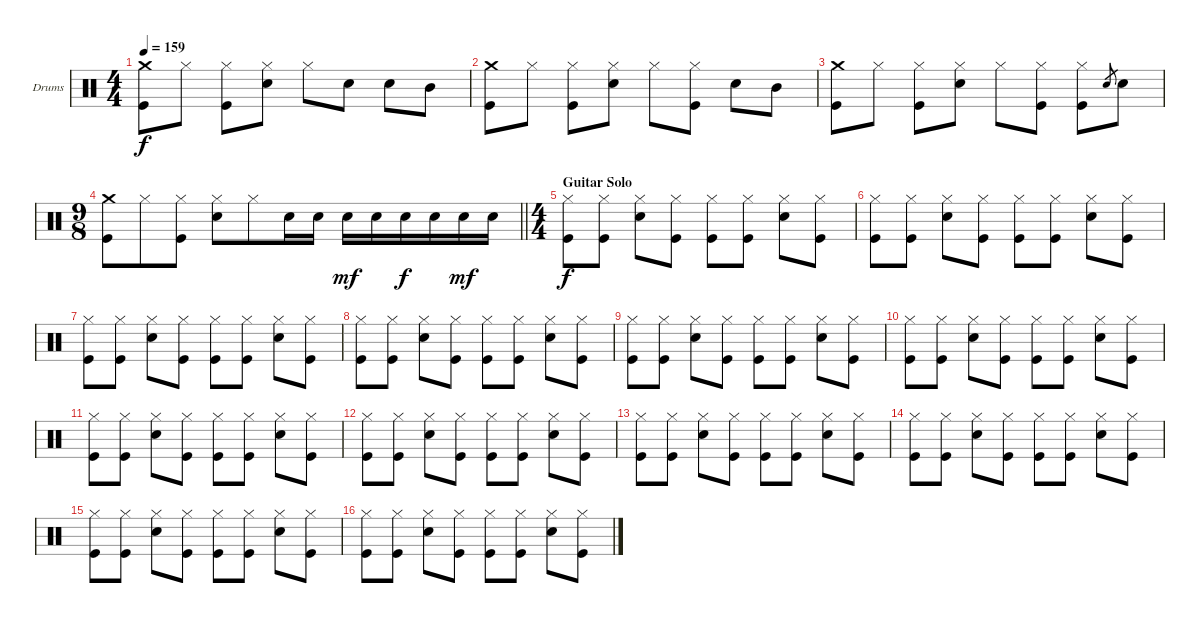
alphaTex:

\bracketExtendMode groupsimilarinstruments
\firstSystemTrackNameOrientation horizontal
\otherSystemsTrackNameOrientation horizontal
\track ("Fabrizio" "Drums") {instrument percussion}
\staff {score}
\articulation defaults
\ts (4 4)
\tempo 159
\clef neutral
\ks c
("Crash medium (hit)" "Kick (hit)").8{dy f} "Hi-Hat (closed)".8 ("Kick (hit)" "Hi-Hat (closed)").8 ("Snare (hit) 2" "Hi-Hat (closed)").8 "Hi-Hat (closed)".8 "Snare (hit) 2".8 "Snare (hit) 2".8 "Mid Tom (hit)".8 |
("Crash medium (hit)" "Kick (hit)").8 "Hi-Hat (closed)".8 ("Kick (hit)" "Hi-Hat (closed)").8 ("Snare (hit) 2" "Hi-Hat (closed)").8 "Hi-Hat (closed)".8 ("Hi-Hat (closed)" "Kick (hit)").8 "Snare (hit) 2".8 "Mid Tom (hit)".8 |
("Crash medium (hit)" "Kick (hit)").8 "Hi-Hat (closed)".8 ("Kick (hit)" "Hi-Hat (closed)").8 ("Snare (hit) 2" "Hi-Hat (closed)").8 "Hi-Hat (closed)".8 ("Hi-Hat (closed)" "Kick (hit)").8 ("Hi-Hat (closed)" "Kick (hit)").8 "Snare (hit) 2".8{gr} "Snare (hit) 2".8 |
\ts (9 8)
\barLineRight lightlight
("Crash medium (hit)" "Kick (hit)").8 "Hi-Hat (closed)".8 ("Kick (hit)" "Hi-Hat (closed)").8 ("Snare (hit) 2" "Hi-Hat (closed)").8 "Hi-Hat (closed)".8 "Snare (hit) 2".16 "Snare (hit) 2".16 "Snare (hit) 2".16{dy mf} "Snare (hit) 2".16 "Snare (hit) 2".16{dy f} "Snare (hit) 2".16 "Snare (hit) 2".16{dy mf} "Snare (hit) 2".16 |
\ts (4 4)
\section ("" "Guitar Solo")
("Kick (hit)" "Hi-Hat (closed)").8{dy f} ("Hi-Hat (closed)" "Kick (hit)").8 ("Snare (hit) 2" "Hi-Hat (closed)").8 ("Hi-Hat (closed)" "Kick (hit)").8 ("Kick (hit)" "Hi-Hat (closed)").8 ("Hi-Hat (closed)" "Kick (hit)").8 ("Snare (hit) 2" "Hi-Hat (closed)").8 ("Hi-Hat (closed)" "Kick (hit)").8 |
("Kick (hit)" "Hi-Hat (closed)").8 ("Hi-Hat (closed)" "Kick (hit)").8 ("Snare (hit) 2" "Hi-Hat (closed)").8 ("Hi-Hat (closed)" "Kick (hit)").8 ("Kick (hit)" "Hi-Hat (closed)").8 ("Hi-Hat (closed)" "Kick (hit)").8 ("Snare (hit) 2" "Hi-Hat (closed)").8 ("Hi-Hat (closed)" "Kick (hit)").8 |
("Kick (hit)" "Hi-Hat (closed)").8 ("Hi-Hat (closed)" "Kick (hit)").8 ("Snare (hit) 2" "Hi-Hat (closed)").8 ("Hi-Hat (closed)" "Kick (hit)").8 ("Kick (hit)" "Hi-Hat (closed)").8 ("Hi-Hat (closed)" "Kick (hit)").8 ("Snare (hit) 2" "Hi-Hat (closed)").8 ("Hi-Hat (closed)" "Kick (hit)").8 |
("Kick (hit)" "Hi-Hat (closed)").8 ("Hi-Hat (closed)" "Kick (hit)").8 ("Snare (hit) 2" "Hi-Hat (closed)").8 ("Hi-Hat (closed)" "Kick (hit)").8 ("Kick (hit)" "Hi-Hat (closed)").8 ("Hi-Hat (closed)" "Kick (hit)").8 ("Snare (hit) 2" "Hi-Hat (closed)").8 ("Hi-Hat (closed)" "Kick (hit)").8 |
("Kick (hit)" "Hi-Hat (closed)").8 ("Hi-Hat (closed)" "Kick (hit)").8 ("Snare (hit) 2" "Hi-Hat (closed)").8 ("Hi-Hat (closed)" "Kick (hit)").8 ("Kick (hit)" "Hi-Hat (closed)").8 ("Hi-Hat (closed)" "Kick (hit)").8 ("Snare (hit) 2" "Hi-Hat (closed)").8 ("Hi-Hat (closed)" "Kick (hit)").8 |
("Kick (hit)" "Hi-Hat (closed)").8 ("Hi-Hat (closed)" "Kick (hit)").8 ("Snare (hit) 2" "Hi-Hat (closed)").8 ("Hi-Hat (closed)" "Kick (hit)").8 ("Kick (hit)" "Hi-Hat (closed)").8 ("Hi-Hat (closed)" "Kick (hit)").8 ("Snare (hit) 2" "Hi-Hat (closed)").8 ("Hi-Hat (closed)" "Kick (hit)").8 |
("Kick (hit)" "Hi-Hat (closed)").8 ("Hi-Hat (closed)" "Kick (hit)").8 ("Snare (hit) 2" "Hi-Hat (closed)").8 ("Hi-Hat (closed)" "Kick (hit)").8 ("Kick (hit)" "Hi-Hat (closed)").8 ("Hi-Hat (closed)" "Kick (hit)").8 ("Snare (hit) 2" "Hi-Hat (closed)").8 ("Hi-Hat (closed)" "Kick (hit)").8 |
("Kick (hit)" "Hi-Hat (closed)").8 ("Hi-Hat (closed)" "Kick (hit)").8 ("Snare (hit) 2" "Hi-Hat (closed)").8 ("Hi-Hat (closed)" "Kick (hit)").8 ("Kick (hit)" "Hi-Hat (closed)").8 ("Hi-Hat (closed)" "Kick (hit)").8 ("Snare (hit) 2" "Hi-Hat (closed)").8 ("Hi-Hat (closed)" "Kick (hit)").8 |
("Kick (hit)" "Hi-Hat (closed)").8 ("Hi-Hat (closed)" "Kick (hit)").8 ("Snare (hit) 2" "Hi-Hat (closed)").8 ("Hi-Hat (closed)" "Kick (hit)").8 ("Kick (hit)" "Hi-Hat (closed)").8 ("Hi-Hat (closed)" "Kick (hit)").8 ("Snare (hit) 2" "Hi-Hat (closed)").8 ("Hi-Hat (closed)" "Kick (hit)").8 |
("Kick (hit)" "Hi-Hat (closed)").8 ("Hi-Hat (closed)" "Kick (hit)").8 ("Snare (hit) 2" "Hi-Hat (closed)").8 ("Hi-Hat (closed)" "Kick (hit)").8 ("Kick (hit)" "Hi-Hat (closed)").8 ("Hi-Hat (closed)" "Kick (hit)").8 ("Snare (hit) 2" "Hi-Hat (closed)").8 ("Hi-Hat (closed)" "Kick (hit)").8 |
("Kick (hit)" "Hi-Hat (closed)").8 ("Hi-Hat (closed)" "Kick (hit)").8 ("Snare (hit) 2" "Hi-Hat (closed)").8 ("Hi-Hat (closed)" "Kick (hit)").8 ("Kick (hit)" "Hi-Hat (closed)").8 ("Hi-Hat (closed)" "Kick (hit)").8 ("Snare (hit) 2" "Hi-Hat (closed)").8 ("Hi-Hat (closed)" "Kick (hit)").8 |
("Kick (hit)" "Hi-Hat (closed)").8 ("Hi-Hat (closed)" "Kick (hit)").8 ("Snare (hit) 2" "Hi-Hat (closed)").8 ("Hi-Hat (closed)" "Kick (hit)").8 ("Kick (hit)" "Hi-Hat (closed)").8 ("Hi-Hat (closed)" "Kick (hit)").8 ("Snare (hit) 2" "Hi-Hat (closed)").8 ("Hi-Hat (closed)" "Kick (hit)").8
